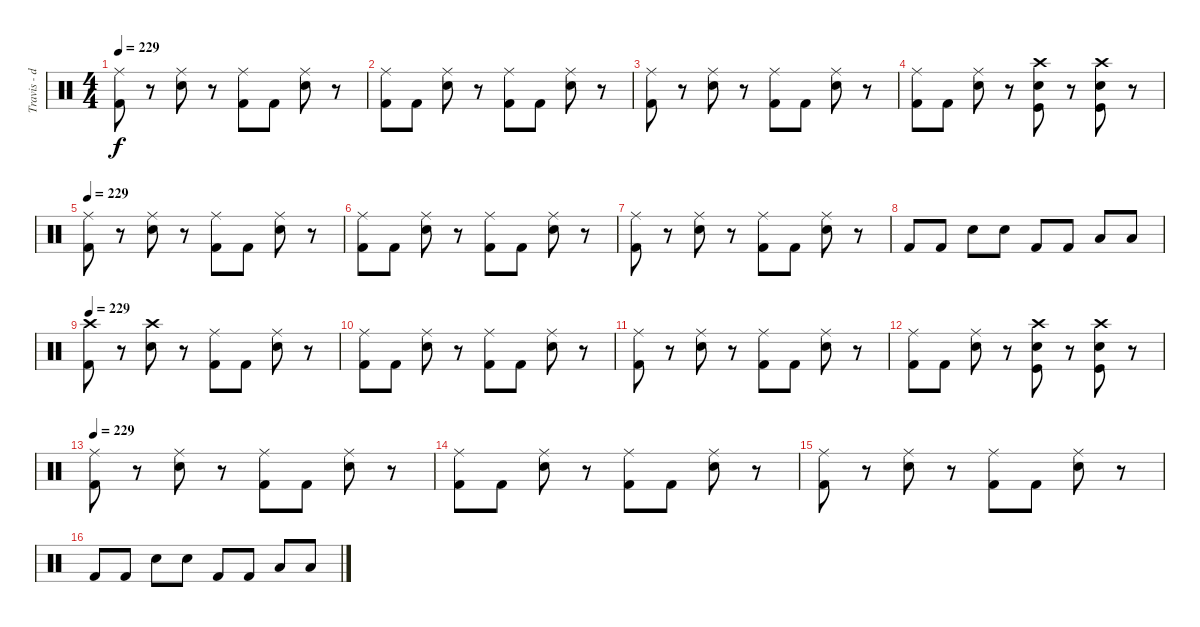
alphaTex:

\track ("Travis - drums" "Travis - d") {instrument percussion}
\staff {score}
\articulation defaults
\ts (4 4)
\tempo 229
\clef neutral
\ks c
("Kick (hit) 2" "Ride (middle)").8{dy f} r.8 ("Ride (middle)" "Electric Snare (hit)").8 r.8 ("Ride (middle)" "Kick (hit) 2").8 "Kick (hit) 2".8 ("Electric Snare (hit)" "Ride (middle)").8 r.8 |
("Kick (hit) 2" "Ride (middle)").8 "Kick (hit) 2".8 ("Electric Snare (hit)" "Ride (middle)").8 r.8 ("Kick (hit) 2" "Ride (middle)").8 "Kick (hit) 2".8 ("Ride (middle)" "Electric Snare (hit)").8 r.8 |
("Ride (middle)" "Kick (hit) 2").8 r.8 ("Ride (middle)" "Electric Snare (hit)").8 r.8 ("Ride (middle)" "Kick (hit) 2").8 "Kick (hit) 2".8 ("Ride (middle)" "Electric Snare (hit)").8 r.8 |
("Kick (hit) 2" "Ride (middle)").8 "Kick (hit) 2".8 ("Ride (middle)" "Electric Snare (hit)").8 r.8 ("Kick (hit)" "Crash high (hit)" "Electric Snare (hit)").8 r.8 ("Electric Snare (hit)" "Crash high (hit)" "Kick (hit)").8 r.8 |
\tempo 229
("Ride (middle)" "Kick (hit) 2").8 r.8 ("Ride (middle)" "Electric Snare (hit)").8 r.8 ("Ride (middle)" "Kick (hit) 2").8 "Kick (hit) 2".8 ("Electric Snare (hit)" "Ride (middle)").8 r.8 |
("Ride (middle)" "Kick (hit) 2").8 "Kick (hit) 2".8 ("Ride (middle)" "Electric Snare (hit)").8 r.8 ("Kick (hit) 2" "Ride (middle)").8 "Kick (hit) 2".8 ("Electric Snare (hit)" "Ride (middle)").8 r.8 |
("Kick (hit) 2" "Ride (middle)").8 r.8 ("Electric Snare (hit)" "Ride (middle)").8 r.8 ("Kick (hit) 2" "Ride (middle)").8 "Kick (hit) 2".8 ("Electric Snare (hit)" "Ride (middle)").8 r.8 |
"Kick (hit) 2".8 "Kick (hit) 2".8 "Electric Snare (hit)".8 "Electric Snare (hit)".8 "Kick (hit) 2".8 "Kick (hit) 2".8 "Low Floor Tom (hit)".8 "Low Floor Tom (hit)".8 |
\tempo 229
("Crash high (hit)" "Kick (hit) 2").8 r.8 ("Crash high (hit)" "Electric Snare (hit)").8 r.8 ("Kick (hit) 2" "Ride (middle)").8 "Kick (hit) 2".8 ("Electric Snare (hit)" "Ride (middle)").8 r.8 |
("Ride (middle)" "Kick (hit) 2").8 "Kick (hit) 2".8 ("Ride (middle)" "Electric Snare (hit)").8 r.8 ("Ride (middle)" "Kick (hit) 2").8 "Kick (hit) 2".8 ("Electric Snare (hit)" "Ride (middle)").8 r.8 |
("Ride (middle)" "Kick (hit) 2").8 r.8 ("Ride (middle)" "Electric Snare (hit)").8 r.8 ("Kick (hit) 2" "Ride (middle)").8 "Kick (hit) 2".8 ("Electric Snare (hit)" "Ride (middle)").8 r.8 |
("Ride (middle)" "Kick (hit) 2").8 "Kick (hit) 2".8 ("Ride (middle)" "Electric Snare (hit)").8 r.8 ("Electric Snare (hit)" "Kick (hit)" "Crash high (hit)").8 r.8 ("Electric Snare (hit)" "Crash high (hit)" "Kick (hit)").8 r.8 |
\tempo 229
("Kick (hit) 2" "Ride (middle)").8 r.8 ("Electric Snare (hit)" "Ride (middle)").8 r.8 ("Kick (hit) 2" "Ride (middle)").8 "Kick (hit) 2".8 ("Ride (middle)" "Electric Snare (hit)").8 r.8 |
("Ride (middle)" "Kick (hit) 2").8 "Kick (hit) 2".8 ("Ride (middle)" "Electric Snare (hit)").8 r.8 ("Kick (hit) 2" "Ride (middle)").8 "Kick (hit) 2".8 ("Ride (middle)" "Electric Snare (hit)").8 r.8 |
("Ride (middle)" "Kick (hit) 2").8 r.8 ("Electric Snare (hit)" "Ride (middle)").8 r.8 ("Ride (middle)" "Kick (hit) 2").8 "Kick (hit) 2".8 ("Electric Snare (hit)" "Ride (middle)").8 r.8 |
"Kick (hit) 2".8 "Kick (hit) 2".8 "Electric Snare (hit)".8 "Electric Snare (hit)".8 "Kick (hit) 2".8 "Kick (hit) 2".8 "Low Floor Tom (hit)".8 "Low Floor Tom (hit)".8
